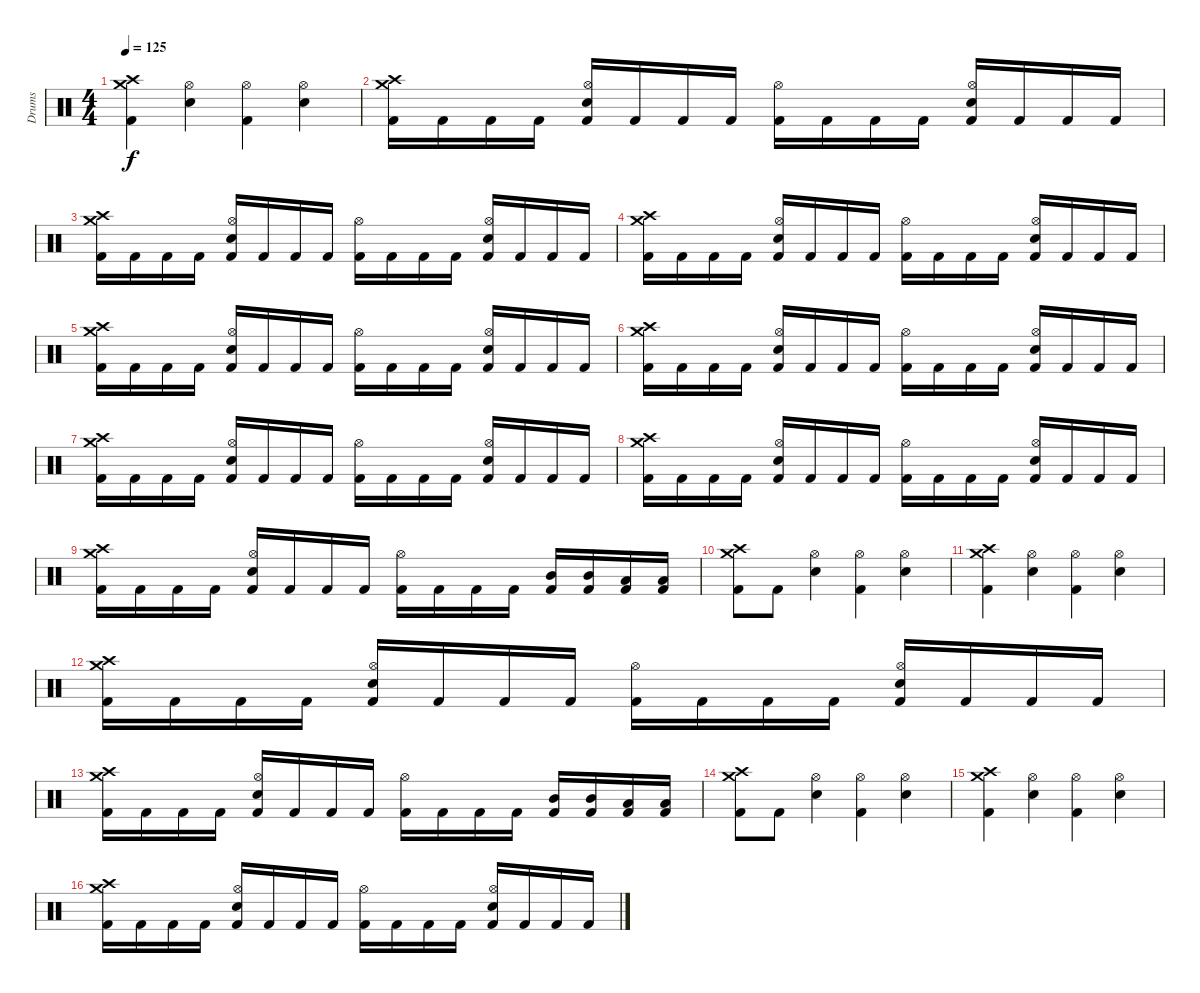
\track ("Drums" "Drums") {instrument percussion}
\staff {score}
\articulation defaults
\ts (4 4)
\tempo 125
\clef neutral
\ks c
("Crash medium (hit)" "Crash high (hit)" "Kick (hit) 2").4{dy f} ("Hi-Hat (open)" "Snare (hit) 2").4 ("Hi-Hat (open)" "Kick (hit) 2").4 ("Hi-Hat (open)" "Snare (hit) 2").4 |
("Crash medium (hit)" "Crash high (hit)" "Kick (hit) 2").16 "Kick (hit) 2".16 "Kick (hit) 2".16 "Kick (hit) 2".16 ("Hi-Hat (open)" "Snare (hit) 2" "Kick (hit) 2").16 "Kick (hit) 2".16 "Kick (hit) 2".16 "Kick (hit) 2".16 ("Hi-Hat (open)" "Kick (hit) 2").16 "Kick (hit) 2".16 "Kick (hit) 2".16 "Kick (hit) 2".16 ("Hi-Hat (open)" "Snare (hit) 2" "Kick (hit) 2").16 "Kick (hit) 2".16 "Kick (hit) 2".16 "Kick (hit) 2".16 |
("Crash medium (hit)" "Crash high (hit)" "Kick (hit) 2").16 "Kick (hit) 2".16 "Kick (hit) 2".16 "Kick (hit) 2".16 ("Hi-Hat (open)" "Snare (hit) 2" "Kick (hit) 2").16 "Kick (hit) 2".16 "Kick (hit) 2".16 "Kick (hit) 2".16 ("Hi-Hat (open)" "Kick (hit) 2").16 "Kick (hit) 2".16 "Kick (hit) 2".16 "Kick (hit) 2".16 ("Hi-Hat (open)" "Snare (hit) 2" "Kick (hit) 2").16 "Kick (hit) 2".16 "Kick (hit) 2".16 "Kick (hit) 2".16 |
("Crash medium (hit)" "Crash high (hit)" "Kick (hit) 2").16 "Kick (hit) 2".16 "Kick (hit) 2".16 "Kick (hit) 2".16 ("Hi-Hat (open)" "Snare (hit) 2" "Kick (hit) 2").16 "Kick (hit) 2".16 "Kick (hit) 2".16 "Kick (hit) 2".16 ("Hi-Hat (open)" "Kick (hit) 2").16 "Kick (hit) 2".16 "Kick (hit) 2".16 "Kick (hit) 2".16 ("Hi-Hat (open)" "Snare (hit) 2" "Kick (hit) 2").16 "Kick (hit) 2".16 "Kick (hit) 2".16 "Kick (hit) 2".16 |
("Crash medium (hit)" "Crash high (hit)" "Kick (hit) 2").16 "Kick (hit) 2".16 "Kick (hit) 2".16 "Kick (hit) 2".16 ("Hi-Hat (open)" "Snare (hit) 2" "Kick (hit) 2").16 "Kick (hit) 2".16 "Kick (hit) 2".16 "Kick (hit) 2".16 ("Hi-Hat (open)" "Kick (hit) 2").16 "Kick (hit) 2".16 "Kick (hit) 2".16 "Kick (hit) 2".16 ("Hi-Hat (open)" "Snare (hit) 2" "Kick (hit) 2").16 "Kick (hit) 2".16 "Kick (hit) 2".16 "Kick (hit) 2".16 |
("Crash medium (hit)" "Crash high (hit)" "Kick (hit) 2").16 "Kick (hit) 2".16 "Kick (hit) 2".16 "Kick (hit) 2".16 ("Hi-Hat (open)" "Snare (hit) 2" "Kick (hit) 2").16 "Kick (hit) 2".16 "Kick (hit) 2".16 "Kick (hit) 2".16 ("Hi-Hat (open)" "Kick (hit) 2").16 "Kick (hit) 2".16 "Kick (hit) 2".16 "Kick (hit) 2".16 ("Hi-Hat (open)" "Snare (hit) 2" "Kick (hit) 2").16 "Kick (hit) 2".16 "Kick (hit) 2".16 "Kick (hit) 2".16 |
("Crash medium (hit)" "Crash high (hit)" "Kick (hit) 2").16 "Kick (hit) 2".16 "Kick (hit) 2".16 "Kick (hit) 2".16 ("Hi-Hat (open)" "Snare (hit) 2" "Kick (hit) 2").16 "Kick (hit) 2".16 "Kick (hit) 2".16 "Kick (hit) 2".16 ("Hi-Hat (open)" "Kick (hit) 2").16 "Kick (hit) 2".16 "Kick (hit) 2".16 "Kick (hit) 2".16 ("Hi-Hat (open)" "Snare (hit) 2" "Kick (hit) 2").16 "Kick (hit) 2".16 "Kick (hit) 2".16 "Kick (hit) 2".16 |
("Crash medium (hit)" "Crash high (hit)" "Kick (hit) 2").16 "Kick (hit) 2".16 "Kick (hit) 2".16 "Kick (hit) 2".16 ("Hi-Hat (open)" "Snare (hit) 2" "Kick (hit) 2").16 "Kick (hit) 2".16 "Kick (hit) 2".16 "Kick (hit) 2".16 ("Hi-Hat (open)" "Kick (hit) 2").16 "Kick (hit) 2".16 "Kick (hit) 2".16 "Kick (hit) 2".16 ("Hi-Hat (open)" "Snare (hit) 2" "Kick (hit) 2").16 "Kick (hit) 2".16 "Kick (hit) 2".16 "Kick (hit) 2".16 |
("Crash medium (hit)" "Crash high (hit)" "Kick (hit) 2").16 "Kick (hit) 2".16 "Kick (hit) 2".16 "Kick (hit) 2".16 ("Hi-Hat (open)" "Snare (hit) 2" "Kick (hit) 2").16 "Kick (hit) 2".16 "Kick (hit) 2".16 "Kick (hit) 2".16 ("Hi-Hat (open)" "Kick (hit) 2").16 "Kick (hit) 2".16 "Kick (hit) 2".16 "Kick (hit) 2".16 ("Mid Tom (hit)" "Kick (hit) 2").16 ("Mid Tom (hit)" "Kick (hit) 2").16 ("Low Tom (hit)" "Kick (hit) 2").16 ("Low Tom (hit)" "Kick (hit) 2").16 |
("Crash medium (hit)" "Crash high (hit)" "Kick (hit) 2").8 "Kick (hit) 2".8 ("Hi-Hat (open)" "Snare (hit) 2").4 ("Hi-Hat (open)" "Kick (hit) 2").4 ("Hi-Hat (open)" "Snare (hit) 2").4 |
("Crash medium (hit)" "Crash high (hit)" "Kick (hit) 2").4 ("Hi-Hat (open)" "Snare (hit) 2").4 ("Hi-Hat (open)" "Kick (hit) 2").4 ("Hi-Hat (open)" "Snare (hit) 2").4 |
("Crash medium (hit)" "Crash high (hit)" "Kick (hit) 2").16 "Kick (hit) 2".16 "Kick (hit) 2".16 "Kick (hit) 2".16 ("Hi-Hat (open)" "Snare (hit) 2" "Kick (hit) 2").16 "Kick (hit) 2".16 "Kick (hit) 2".16 "Kick (hit) 2".16 ("Hi-Hat (open)" "Kick (hit) 2").16 "Kick (hit) 2".16 "Kick (hit) 2".16 "Kick (hit) 2".16 ("Hi-Hat (open)" "Snare (hit) 2" "Kick (hit) 2").16 "Kick (hit) 2".16 "Kick (hit) 2".16 "Kick (hit) 2".16 |
("Crash medium (hit)" "Crash high (hit)" "Kick (hit) 2").16 "Kick (hit) 2".16 "Kick (hit) 2".16 "Kick (hit) 2".16 ("Hi-Hat (open)" "Snare (hit) 2" "Kick (hit) 2").16 "Kick (hit) 2".16 "Kick (hit) 2".16 "Kick (hit) 2".16 ("Hi-Hat (open)" "Kick (hit) 2").16 "Kick (hit) 2".16 "Kick (hit) 2".16 "Kick (hit) 2".16 ("Mid Tom (hit)" "Kick (hit) 2").16 ("Mid Tom (hit)" "Kick (hit) 2").16 ("Low Tom (hit)" "Kick (hit) 2").16 ("Low Tom (hit)" "Kick (hit) 2").16 |
("Crash medium (hit)" "Crash high (hit)" "Kick (hit) 2").8 "Kick (hit) 2".8 ("Hi-Hat (open)" "Snare (hit) 2").4 ("Hi-Hat (open)" "Kick (hit) 2").4 ("Hi-Hat (open)" "Snare (hit) 2").4 |
("Crash medium (hit)" "Crash high (hit)" "Kick (hit) 2").4 ("Hi-Hat (open)" "Snare (hit) 2").4 ("Hi-Hat (open)" "Kick (hit) 2").4 ("Hi-Hat (open)" "Snare (hit) 2").4 |
("Crash medium (hit)" "Crash high (hit)" "Kick (hit) 2").16 "Kick (hit) 2".16 "Kick (hit) 2".16 "Kick (hit) 2".16 ("Hi-Hat (open)" "Snare (hit) 2" "Kick (hit) 2").16 "Kick (hit) 2".16 "Kick (hit) 2".16 "Kick (hit) 2".16 ("Hi-Hat (open)" "Kick (hit) 2").16 "Kick (hit) 2".16 "Kick (hit) 2".16 "Kick (hit) 2".16 ("Hi-Hat (open)" "Snare (hit) 2" "Kick (hit) 2").16 "Kick (hit) 2".16 "Kick (hit) 2".16 "Kick (hit) 2".16
